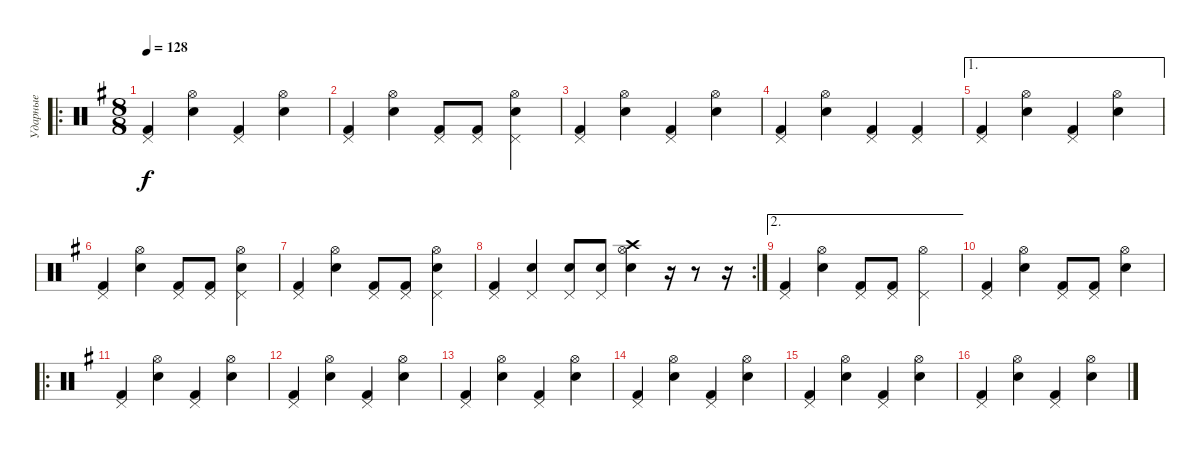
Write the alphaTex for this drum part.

\track ("Ударные" "Ударные") {instrument percussion}
\staff {score}
\articulation defaults
\ro
\ts (8 8)
\tempo 128
\clef neutral
\ks g
("Kick (hit) 2" "Pedal Hi-Hat (hit)").4{dy f} ("Electric Snare (hit)" "Hi-Hat (open)").4 ("Kick (hit) 2" "Pedal Hi-Hat (hit)").4 ("Electric Snare (hit)" "Hi-Hat (open)").4 |
("Kick (hit) 2" "Pedal Hi-Hat (hit)").4 ("Electric Snare (hit)" "Hi-Hat (open)").4 ("Kick (hit) 2" "Pedal Hi-Hat (hit)").8 ("Kick (hit) 2" "Pedal Hi-Hat (hit)").8 ("Pedal Hi-Hat (hit)" "Hi-Hat (open)" "Electric Snare (hit)").4 |
("Kick (hit) 2" "Pedal Hi-Hat (hit)").4 ("Electric Snare (hit)" "Hi-Hat (open)").4 ("Kick (hit) 2" "Pedal Hi-Hat (hit)").4 ("Electric Snare (hit)" "Hi-Hat (open)").4 |
("Kick (hit) 2" "Pedal Hi-Hat (hit)").4 ("Electric Snare (hit)" "Hi-Hat (open)").4 ("Kick (hit) 2" "Pedal Hi-Hat (hit)").4 ("Kick (hit) 2" "Pedal Hi-Hat (hit)").4 |
\ae 1
("Kick (hit) 2" "Pedal Hi-Hat (hit)").4 ("Electric Snare (hit)" "Hi-Hat (open)").4 ("Kick (hit) 2" "Pedal Hi-Hat (hit)").4 ("Electric Snare (hit)" "Hi-Hat (open)").4 |
("Kick (hit) 2" "Pedal Hi-Hat (hit)").4 ("Electric Snare (hit)" "Hi-Hat (open)").4 ("Kick (hit) 2" "Pedal Hi-Hat (hit)").8 ("Kick (hit) 2" "Pedal Hi-Hat (hit)").8 ("Pedal Hi-Hat (hit)" "Hi-Hat (open)" "Electric Snare (hit)").4 |
("Kick (hit) 2" "Pedal Hi-Hat (hit)").4 ("Electric Snare (hit)" "Hi-Hat (open)").4 ("Kick (hit) 2" "Pedal Hi-Hat (hit)").8 ("Kick (hit) 2" "Pedal Hi-Hat (hit)").8 ("Pedal Hi-Hat (hit)" "Hi-Hat (open)" "Electric Snare (hit)").4 |
\rc 2
("Kick (hit) 2" "Pedal Hi-Hat (hit)").4 ("Electric Snare (hit)" "Pedal Hi-Hat (hit)").4 ("Electric Snare (hit)" "Pedal Hi-Hat (hit)").8 ("Electric Snare (hit)" "Pedal Hi-Hat (hit)").8 ("Electric Snare (hit)" "Hi-Hat (open)" "Crash high (hit)").4 r.16 r.8 r.16 |
\ae 2
("Kick (hit) 2" "Pedal Hi-Hat (hit)").4 ("Electric Snare (hit)" "Hi-Hat (open)").4 ("Kick (hit) 2" "Pedal Hi-Hat (hit)").8 ("Kick (hit) 2" "Pedal Hi-Hat (hit)").8 ("Pedal Hi-Hat (hit)" "Hi-Hat (open)").4 |
("Kick (hit) 2" "Pedal Hi-Hat (hit)").4 ("Electric Snare (hit)" "Hi-Hat (open)").4 ("Kick (hit) 2" "Pedal Hi-Hat (hit)").8 ("Kick (hit) 2" "Pedal Hi-Hat (hit)").8 ("Electric Snare (hit)" "Hi-Hat (open)").4 |
\ro
("Kick (hit) 2" "Pedal Hi-Hat (hit)").4 ("Electric Snare (hit)" "Hi-Hat (open)").4 ("Kick (hit) 2" "Pedal Hi-Hat (hit)").4 ("Electric Snare (hit)" "Hi-Hat (open)").4 |
("Kick (hit) 2" "Pedal Hi-Hat (hit)").4 ("Electric Snare (hit)" "Hi-Hat (open)").4 ("Kick (hit) 2" "Pedal Hi-Hat (hit)").4 ("Electric Snare (hit)" "Hi-Hat (open)").4 |
("Kick (hit) 2" "Pedal Hi-Hat (hit)").4 ("Electric Snare (hit)" "Hi-Hat (open)").4 ("Kick (hit) 2" "Pedal Hi-Hat (hit)").4 ("Electric Snare (hit)" "Hi-Hat (open)").4 |
("Kick (hit) 2" "Pedal Hi-Hat (hit)").4 ("Electric Snare (hit)" "Hi-Hat (open)").4 ("Kick (hit) 2" "Pedal Hi-Hat (hit)").4 ("Electric Snare (hit)" "Hi-Hat (open)").4 |
("Kick (hit) 2" "Pedal Hi-Hat (hit)").4 ("Electric Snare (hit)" "Hi-Hat (open)").4 ("Kick (hit) 2" "Pedal Hi-Hat (hit)").4 ("Electric Snare (hit)" "Hi-Hat (open)").4 |
("Kick (hit) 2" "Pedal Hi-Hat (hit)").4 ("Electric Snare (hit)" "Hi-Hat (open)").4 ("Kick (hit) 2" "Pedal Hi-Hat (hit)").4 ("Electric Snare (hit)" "Hi-Hat (open)").4
